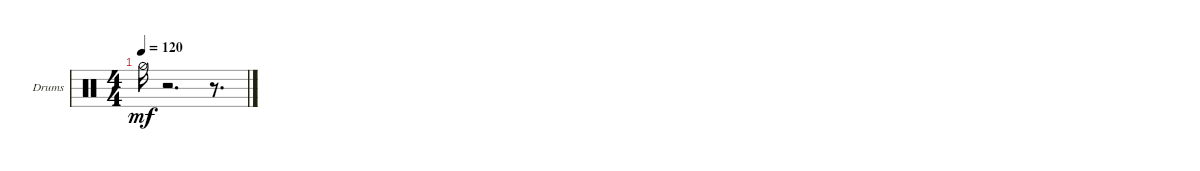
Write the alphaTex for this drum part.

\defaultSystemsLayout 4
\bracketExtendMode groupsimilarinstruments
\firstSystemTrackNameOrientation horizontal
\otherSystemsTrackNameOrientation horizontal
\track ("Kai" "Drums") {instrument percussion}
\staff {score}
\articulation defaults
\ts (4 4)
\tempo 120
\clef neutral
\ks c "Hi-Hat (half)".16{dy mf}
r.2{d} r.8{d}
